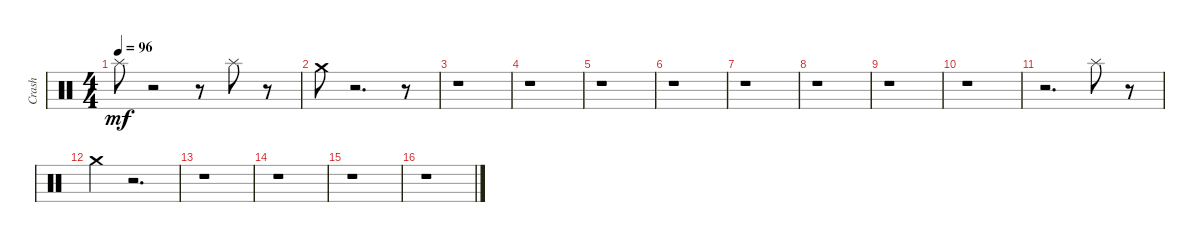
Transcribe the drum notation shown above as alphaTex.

\track ("Crash" "Crash") {instrument percussion}
\staff {score}
\articulation defaults
\ts (4 4)
\tempo 96
\clef neutral
\ks c "Splash (hit)".8{dy mf}
r.2 r.8 "Splash (hit)".8 r.8 |
"Crash medium (hit)".8 r.2{d} r.8 |
r.1 |
r.1 |
r.1 |
r.1 |
r.1 |
r.1 |
r.1 |
r.1 |
r.2{d} "Splash (hit)".8 r.8 |
"Crash medium (hit)".4 r.2{d} |
r.1 |
r.1 |
r.1 |
r.1
